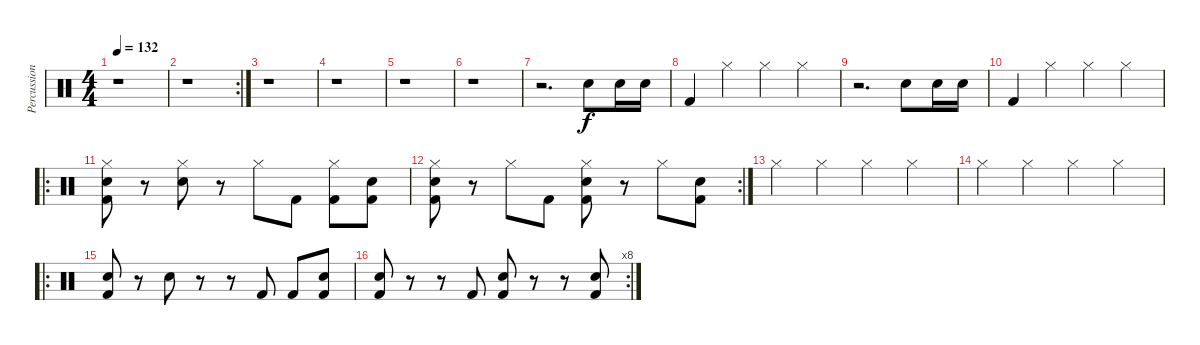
\track ("Percussion" "Percussion") {instrument percussion}
\staff {score}
\articulation defaults
\ts (4 4)
\tempo 132
\clef neutral
\ks c
r.1{dy f} |
\rc 2
r.1 |
r.1 |
r.1 |
r.1 |
r.1 |
r.2{d} "Electric Snare (hit)".8 "Electric Snare (hit)".16 "Electric Snare (hit)".16 |
"Kick (hit) 2".4 "Hi-Hat (closed)".4 "Hi-Hat (closed)".4 "Hi-Hat (closed)".4 |
r.2{d} "Electric Snare (hit)".8 "Electric Snare (hit)".16 "Electric Snare (hit)".16 |
"Kick (hit) 2".4 "Hi-Hat (closed)".4 "Hi-Hat (closed)".4 "Hi-Hat (closed)".4 |
\ro
("Hi-Hat (closed)" "Electric Snare (hit)" "Kick (hit) 2").8 r.8 ("Hi-Hat (closed)" "Electric Snare (hit)").8 r.8 "Hi-Hat (closed)".8 "Kick (hit) 2".8 ("Hi-Hat (closed)" "Kick (hit) 2").8 ("Electric Snare (hit)" "Kick (hit) 2").8 |
\rc 2
("Hi-Hat (closed)" "Electric Snare (hit)" "Kick (hit) 2").8 r.8 "Hi-Hat (closed)".8 "Kick (hit) 2".8 ("Hi-Hat (closed)" "Electric Snare (hit)" "Kick (hit) 2").8 r.8 "Hi-Hat (closed)".8 ("Electric Snare (hit)" "Kick (hit) 2").8 |
"Hi-Hat (closed)".4 "Hi-Hat (closed)".4 "Hi-Hat (closed)".4 "Hi-Hat (closed)".4 |
"Hi-Hat (closed)".4 "Hi-Hat (closed)".4 "Hi-Hat (closed)".4 "Hi-Hat (closed)".4 |
\ro
("Electric Snare (hit)" "Kick (hit) 2").8 r.8 "Electric Snare (hit)".8 r.8 r.8 "Kick (hit) 2".8 "Kick (hit) 2".8 ("Electric Snare (hit)" "Kick (hit) 2").8 |
\rc 8
("Electric Snare (hit)" "Kick (hit) 2").8 r.8 r.8 "Kick (hit) 2".8 ("Electric Snare (hit)" "Kick (hit) 2").8 r.8 r.8 ("Electric Snare (hit)" "Kick (hit) 2").8
